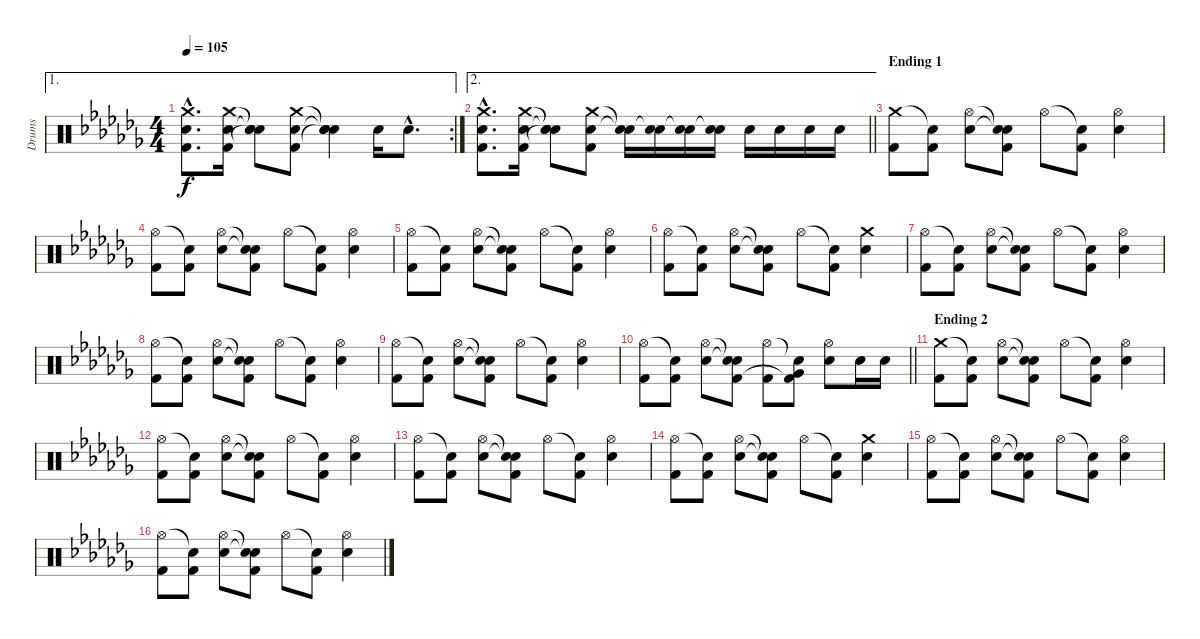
\track ("Drums" "Drums") {instrument percussion}
\staff {score}
\articulation defaults
\ae 1
\rc 2
\ts (4 4)
\tempo 105
\clef neutral
\ks abminor
("Crash medium (hit)"{hac} "Electric Snare (hit)"{hac} "Kick (hit) 2"{hac}).8{d dy f} ("Crash medium (hit)" "Electric Snare (hit)" "Kick (hit) 2").16 ("Snare (hit)"{t} "Snare (hit)"{t} "Snare (hit)"{t}).8 ("Crash medium (hit)" "Electric Snare (hit)" "Kick (hit) 2").8 ("Snare (hit)"{t} "Snare (hit)"{t} "Snare (hit)"{t}).4 "Electric Snare (hit)".16 "Electric Snare (hit)"{hac}.8{d} |
\ae 2
\barLineRight lightlight
("Crash medium (hit)"{hac} "Electric Snare (hit)"{hac} "Kick (hit) 2"{hac}).8{d} ("Crash medium (hit)" "Electric Snare (hit)" "Kick (hit) 2").16 ("Snare (hit)"{t} "Snare (hit)"{t} "Snare (hit)"{t}).8 ("Crash medium (hit)" "Electric Snare (hit)" "Kick (hit) 2").8 ("Snare (hit)"{t} "Snare (hit)"{t}).16 ("Electric Snare (hit)" "Snare (hit)"{t}).16 ("Electric Snare (hit)" "Snare (hit)"{t}).16 ("Electric Snare (hit)" "Snare (hit)"{t}).16 "Electric Snare (hit)".16 "Electric Snare (hit)".16 "Electric Snare (hit)".16 "Electric Snare (hit)".16 |
\section ("" "Ending 1")
("Crash medium (hit)" "Kick (hit) 2").8 ("Snare (hit)"{t} "Kick (hit) 2").8 ("Hi-Hat (open)" "Electric Snare (hit)").8 ("Snare (hit)"{t} "Snare (hit)"{t} "Kick (hit) 2").8 "Hi-Hat (open)".8 ("Snare (hit)"{t} "Kick (hit) 2").8 ("Hi-Hat (open)" "Electric Snare (hit)").4 |
("Hi-Hat (open)" "Kick (hit) 2").8 ("Snare (hit)"{t} "Kick (hit) 2").8 ("Hi-Hat (open)" "Electric Snare (hit)").8 ("Snare (hit)"{t} "Snare (hit)"{t} "Kick (hit) 2").8 "Hi-Hat (open)".8 ("Snare (hit)"{t} "Kick (hit) 2").8 ("Hi-Hat (open)" "Electric Snare (hit)").4 |
("Hi-Hat (open)" "Kick (hit) 2").8 ("Snare (hit)"{t} "Kick (hit) 2").8 ("Hi-Hat (open)" "Electric Snare (hit)").8 ("Snare (hit)"{t} "Snare (hit)"{t} "Kick (hit) 2").8 "Hi-Hat (open)".8 ("Snare (hit)"{t} "Kick (hit) 2").8 ("Hi-Hat (open)" "Electric Snare (hit)").4 |
("Hi-Hat (open)" "Kick (hit) 2").8 ("Snare (hit)"{t} "Kick (hit) 2").8 ("Hi-Hat (open)" "Electric Snare (hit)").8 ("Snare (hit)"{t} "Snare (hit)"{t} "Kick (hit) 2").8 "Hi-Hat (open)".8 ("Snare (hit)"{t} "Kick (hit) 2").8 ("Crash medium (hit)" "Electric Snare (hit)").4 |
("Hi-Hat (open)" "Kick (hit) 2").8 ("Snare (hit)"{t} "Kick (hit) 2").8 ("Hi-Hat (open)" "Electric Snare (hit)").8 ("Snare (hit)"{t} "Snare (hit)"{t} "Kick (hit) 2").8 "Hi-Hat (open)".8 ("Snare (hit)"{t} "Kick (hit) 2").8 ("Hi-Hat (open)" "Electric Snare (hit)").4 |
("Hi-Hat (open)" "Kick (hit) 2").8 ("Snare (hit)"{t} "Kick (hit) 2").8 ("Hi-Hat (open)" "Electric Snare (hit)").8 ("Snare (hit)"{t} "Snare (hit)"{t} "Kick (hit) 2").8 "Hi-Hat (open)".8 ("Snare (hit)"{t} "Kick (hit) 2").8 ("Hi-Hat (open)" "Electric Snare (hit)").4 |
("Hi-Hat (open)" "Kick (hit) 2").8 ("Snare (hit)"{t} "Kick (hit) 2").8 ("Hi-Hat (open)" "Electric Snare (hit)").8 ("Snare (hit)"{t} "Snare (hit)"{t} "Kick (hit) 2").8 "Hi-Hat (open)".8 ("Snare (hit)"{t} "Kick (hit) 2").8 ("Hi-Hat (open)" "Electric Snare (hit)").4 |
\barLineRight lightlight
("Hi-Hat (open)" "Kick (hit) 2").8 ("Snare (hit)"{t} "Kick (hit) 2").8 ("Hi-Hat (open)" "Electric Snare (hit)").8 ("Snare (hit)"{t} "Snare (hit)"{t} "Kick (hit) 2").8 ("Hi-Hat (open)" "Kick (hit) 2").8 ("Snare (hit)"{t} "Very Low Tom (hit)" "Kick (hit) 2"{t}).8 ("Hi-Hat (open)" "Electric Snare (hit)").8 "Electric Snare (hit)".16 "Electric Snare (hit)".16 |
\section ("" "Ending 2")
("Crash medium (hit)" "Kick (hit) 2").8 ("Snare (hit)"{t} "Kick (hit) 2").8 ("Hi-Hat (open)" "Electric Snare (hit)").8 ("Snare (hit)"{t} "Snare (hit)"{t} "Kick (hit) 2").8 "Hi-Hat (open)".8 ("Snare (hit)"{t} "Kick (hit) 2").8 ("Hi-Hat (open)" "Electric Snare (hit)").4 |
("Hi-Hat (open)" "Kick (hit) 2").8 ("Snare (hit)"{t} "Kick (hit) 2").8 ("Hi-Hat (open)" "Electric Snare (hit)").8 ("Snare (hit)"{t} "Snare (hit)"{t} "Kick (hit) 2").8 "Hi-Hat (open)".8 ("Snare (hit)"{t} "Kick (hit) 2").8 ("Hi-Hat (open)" "Electric Snare (hit)").4 |
("Hi-Hat (open)" "Kick (hit) 2").8 ("Snare (hit)"{t} "Kick (hit) 2").8 ("Hi-Hat (open)" "Electric Snare (hit)").8 ("Snare (hit)"{t} "Snare (hit)"{t} "Kick (hit) 2").8 "Hi-Hat (open)".8 ("Snare (hit)"{t} "Kick (hit) 2").8 ("Hi-Hat (open)" "Electric Snare (hit)").4 |
("Hi-Hat (open)" "Kick (hit) 2").8 ("Snare (hit)"{t} "Kick (hit) 2").8 ("Hi-Hat (open)" "Electric Snare (hit)").8 ("Snare (hit)"{t} "Snare (hit)"{t} "Kick (hit) 2").8 "Hi-Hat (open)".8 ("Snare (hit)"{t} "Kick (hit) 2").8 ("Crash medium (hit)" "Electric Snare (hit)").4 |
("Hi-Hat (open)" "Kick (hit) 2").8 ("Snare (hit)"{t} "Kick (hit) 2").8 ("Hi-Hat (open)" "Electric Snare (hit)").8 ("Snare (hit)"{t} "Snare (hit)"{t} "Kick (hit) 2").8 "Hi-Hat (open)".8 ("Snare (hit)"{t} "Kick (hit) 2").8 ("Hi-Hat (open)" "Electric Snare (hit)").4 |
("Hi-Hat (open)" "Kick (hit) 2").8 ("Snare (hit)"{t} "Kick (hit) 2").8 ("Hi-Hat (open)" "Electric Snare (hit)").8 ("Snare (hit)"{t} "Snare (hit)"{t} "Kick (hit) 2").8 "Hi-Hat (open)".8 ("Snare (hit)"{t} "Kick (hit) 2").8 ("Hi-Hat (open)" "Electric Snare (hit)").4
